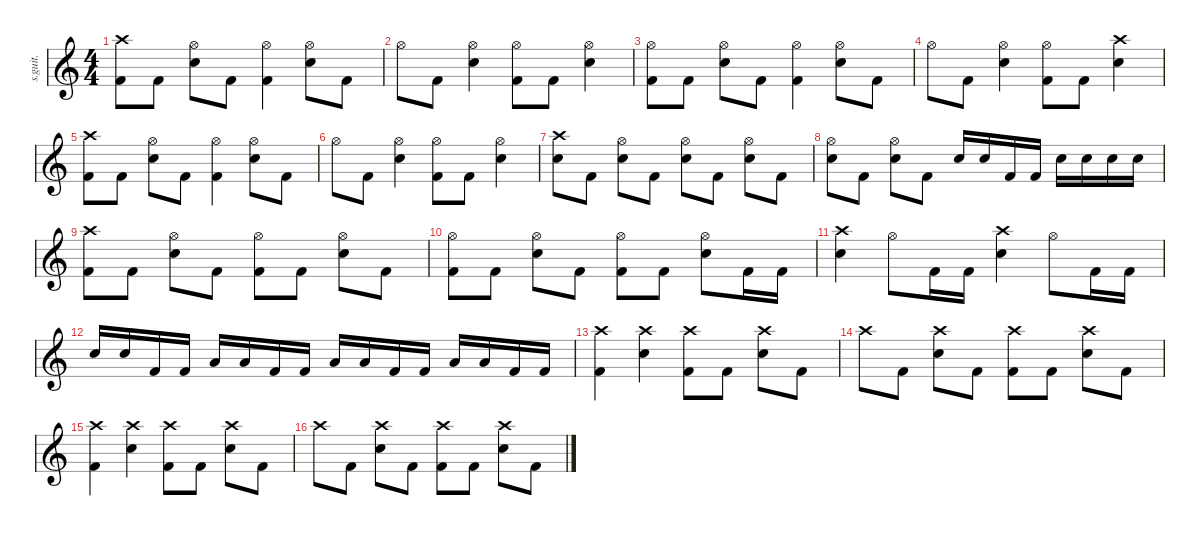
\defaultSystemsLayout 4
\hideDynamics
\bracketExtendMode nobrackets
\track ("" "s.guit.") {instrument percussion}
\staff {score}
\articulation defaults
\ts (4 4)
\tempo (184 hide)
\clef g2
\ks c
("Crash high (hit)" "Kick (hit) 2").8{dy f} "Kick (hit) 2".8 ("Hi-Hat (open)" "Snare (hit) 2").8 "Kick (hit) 2".8 ("Hi-Hat (open)" "Kick (hit) 2").4 ("Hi-Hat (open)" "Snare (hit) 2").8 "Kick (hit) 2".8 |
"Hi-Hat (open)".8 "Kick (hit) 2".8 ("Hi-Hat (open)" "Snare (hit) 2").4 ("Hi-Hat (open)" "Kick (hit) 2").8 "Kick (hit) 2".8 ("Hi-Hat (open)" "Snare (hit) 2").4 |
("Hi-Hat (open)" "Kick (hit) 2").8 "Kick (hit) 2".8 ("Hi-Hat (open)" "Snare (hit) 2").8 "Kick (hit) 2".8 ("Hi-Hat (open)" "Kick (hit) 2").4 ("Hi-Hat (open)" "Snare (hit) 2").8 "Kick (hit) 2".8 |
"Hi-Hat (open)".8 "Kick (hit) 2".8 ("Hi-Hat (open)" "Snare (hit) 2").4 ("Hi-Hat (open)" "Kick (hit) 2").8 "Kick (hit) 2".8 ("Crash high (hit)" "Snare (hit) 2").4 |
("Crash high (hit)" "Kick (hit) 2").8 "Kick (hit) 2".8 ("Hi-Hat (open)" "Snare (hit) 2").8 "Kick (hit) 2".8 ("Hi-Hat (open)" "Kick (hit) 2").4 ("Hi-Hat (open)" "Snare (hit) 2").8 "Kick (hit) 2".8 |
"Hi-Hat (open)".8 "Kick (hit) 2".8 ("Hi-Hat (open)" "Snare (hit) 2").4 ("Hi-Hat (open)" "Kick (hit) 2").8 "Kick (hit) 2".8 ("Hi-Hat (open)" "Snare (hit) 2").4 |
("Crash high (hit)" "Snare (hit) 2").8 "Kick (hit) 2".8 ("Hi-Hat (open)" "Snare (hit) 2").8 "Kick (hit) 2".8 ("Hi-Hat (open)" "Snare (hit) 2").8 "Kick (hit) 2".8 ("Hi-Hat (open)" "Snare (hit) 2").8 "Kick (hit) 2".8 |
("Hi-Hat (open)" "Snare (hit) 2").8 "Kick (hit) 2".8 ("Hi-Hat (open)" "Snare (hit) 2").8 "Kick (hit) 2".8 "Snare (hit) 2".16 "Snare (hit) 2".16 "Kick (hit) 2".16 "Kick (hit) 2".16 "Snare (hit) 2".16 "Snare (hit) 2".16 "Snare (hit) 2".16 "Snare (hit) 2".16 |
("Crash high (hit)" "Kick (hit) 2").8 "Kick (hit) 2".8 ("Hi-Hat (open)" "Snare (hit) 2").8 "Kick (hit) 2".8 ("Hi-Hat (open)" "Kick (hit) 2").8 "Kick (hit) 2".8 ("Hi-Hat (open)" "Snare (hit) 2").8 "Kick (hit) 2".8 |
("Hi-Hat (open)" "Kick (hit) 2").8 "Kick (hit) 2".8 ("Hi-Hat (open)" "Snare (hit) 2").8 "Kick (hit) 2".8 ("Hi-Hat (open)" "Kick (hit) 2").8 "Kick (hit) 2".8 ("Hi-Hat (open)" "Snare (hit) 2").8 "Kick (hit) 2".16 "Kick (hit) 2".16 |
("Crash high (hit)" "Snare (hit) 2").4 "Hi-Hat (open)".8 "Kick (hit) 2".16 "Kick (hit) 2".16 ("Crash high (hit)" "Snare (hit) 2").4 "Hi-Hat (open)".8 "Kick (hit) 2".16 "Kick (hit) 2".16 |
"Snare (hit) 2".16 "Snare (hit) 2".16 "Kick (hit) 2".16 "Kick (hit) 2".16 "Low Tom (hit)".16 "Low Tom (hit)".16 "Kick (hit) 2".16 "Kick (hit) 2".16 "Low Tom (hit)".16 "Low Tom (hit)".16 "Kick (hit) 2".16 "Kick (hit) 2".16 "Low Floor Tom (hit)".16 "Low Floor Tom (hit)".16 "Kick (hit) 2".16 "Kick (hit) 2".16 |
("Crash high (hit)" "Kick (hit) 2").4 ("Crash high (hit)" "Snare (hit) 2").4 ("Crash high (hit)" "Kick (hit) 2").8 "Kick (hit) 2".8 ("Crash high (hit)" "Snare (hit) 2").8 "Kick (hit) 2".8 |
"Crash high (hit)".8 "Kick (hit) 2".8 ("Crash high (hit)" "Snare (hit) 2").8 "Kick (hit) 2".8 ("Crash high (hit)" "Kick (hit) 2").8 "Kick (hit) 2".8 ("Crash high (hit)" "Snare (hit) 2").8 "Kick (hit) 2".8 |
("Crash high (hit)" "Kick (hit) 2").4 ("Crash high (hit)" "Snare (hit) 2").4 ("Crash high (hit)" "Kick (hit) 2").8 "Kick (hit) 2".8 ("Crash high (hit)" "Snare (hit) 2").8 "Kick (hit) 2".8 |
"Crash high (hit)".8 "Kick (hit) 2".8 ("Crash high (hit)" "Snare (hit) 2").8 "Kick (hit) 2".8 ("Crash high (hit)" "Kick (hit) 2").8 "Kick (hit) 2".8 ("Crash high (hit)" "Snare (hit) 2").8 "Kick (hit) 2".8
